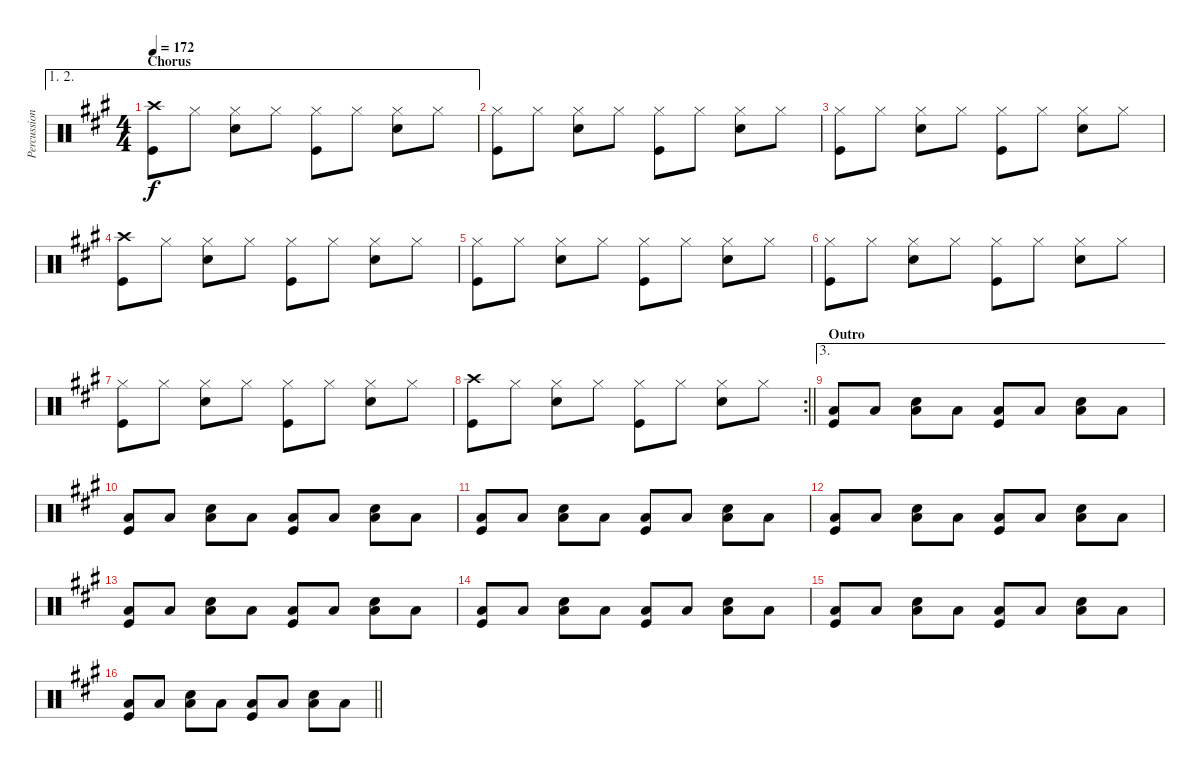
\track ("Percussion" "Percussion") {instrument percussion}
\staff {score}
\articulation defaults
\ae (1 2)
\ts (4 4)
\section ("" "Chorus")
\tempo 172
\clef neutral
\ks a
("Crash high (hit)" "Kick (hit)").8{dy f} "Hi-Hat (closed)".8 ("Hi-Hat (closed)" "Snare (hit) 2").8 "Hi-Hat (closed)".8 ("Hi-Hat (closed)" "Kick (hit)").8 "Hi-Hat (closed)".8 ("Hi-Hat (closed)" "Snare (hit) 2").8 "Hi-Hat (closed)".8 |
("Hi-Hat (closed)" "Kick (hit)").8 "Hi-Hat (closed)".8 ("Hi-Hat (closed)" "Snare (hit) 2").8 "Hi-Hat (closed)".8 ("Hi-Hat (closed)" "Kick (hit)").8 "Hi-Hat (closed)".8 ("Hi-Hat (closed)" "Snare (hit) 2").8 "Hi-Hat (closed)".8 |
("Hi-Hat (closed)" "Kick (hit)").8 "Hi-Hat (closed)".8 ("Hi-Hat (closed)" "Snare (hit) 2").8 "Hi-Hat (closed)".8 ("Hi-Hat (closed)" "Kick (hit)").8 "Hi-Hat (closed)".8 ("Hi-Hat (closed)" "Snare (hit) 2").8 "Hi-Hat (closed)".8 |
("Crash high (hit)" "Kick (hit)").8 "Hi-Hat (closed)".8 ("Hi-Hat (closed)" "Snare (hit) 2").8 "Hi-Hat (closed)".8 ("Hi-Hat (closed)" "Kick (hit)").8 "Hi-Hat (closed)".8 ("Hi-Hat (closed)" "Snare (hit) 2").8 "Hi-Hat (closed)".8 |
("Hi-Hat (closed)" "Kick (hit)").8 "Hi-Hat (closed)".8 ("Hi-Hat (closed)" "Snare (hit) 2").8 "Hi-Hat (closed)".8 ("Hi-Hat (closed)" "Kick (hit)").8 "Hi-Hat (closed)".8 ("Hi-Hat (closed)" "Snare (hit) 2").8 "Hi-Hat (closed)".8 |
("Hi-Hat (closed)" "Kick (hit)").8 "Hi-Hat (closed)".8 ("Hi-Hat (closed)" "Snare (hit) 2").8 "Hi-Hat (closed)".8 ("Hi-Hat (closed)" "Kick (hit)").8 "Hi-Hat (closed)".8 ("Hi-Hat (closed)" "Snare (hit) 2").8 "Hi-Hat (closed)".8 |
("Hi-Hat (closed)" "Kick (hit)").8 "Hi-Hat (closed)".8 ("Hi-Hat (closed)" "Snare (hit) 2").8 "Hi-Hat (closed)".8 ("Hi-Hat (closed)" "Kick (hit)").8 "Hi-Hat (closed)".8 ("Hi-Hat (closed)" "Snare (hit) 2").8 "Hi-Hat (closed)".8 |
\rc 2
\barLineRight lightlight
("Crash high (hit)" "Kick (hit)").8 "Hi-Hat (closed)".8 ("Hi-Hat (closed)" "Snare (hit) 2").8 "Hi-Hat (closed)".8 ("Hi-Hat (closed)" "Kick (hit)").8 "Hi-Hat (closed)".8 ("Hi-Hat (closed)" "Snare (hit) 2").8 "Hi-Hat (closed)".8 |
\ae 3
\section ("" "Outro")
("Low Floor Tom (hit)" "Kick (hit)").8 "Low Floor Tom (hit)".8 ("Low Floor Tom (hit)" "Snare (hit) 2").8 "Low Floor Tom (hit)".8 ("Low Floor Tom (hit)" "Kick (hit)").8 "Low Floor Tom (hit)".8 ("Low Floor Tom (hit)" "Snare (hit) 2").8 "Low Floor Tom (hit)".8 |
("Low Floor Tom (hit)" "Kick (hit)").8 "Low Floor Tom (hit)".8 ("Low Floor Tom (hit)" "Snare (hit) 2").8 "Low Floor Tom (hit)".8 ("Low Floor Tom (hit)" "Kick (hit)").8 "Low Floor Tom (hit)".8 ("Low Floor Tom (hit)" "Snare (hit) 2").8 "Low Floor Tom (hit)".8 |
("Low Floor Tom (hit)" "Kick (hit)").8 "Low Floor Tom (hit)".8 ("Low Floor Tom (hit)" "Snare (hit) 2").8 "Low Floor Tom (hit)".8 ("Low Floor Tom (hit)" "Kick (hit)").8 "Low Floor Tom (hit)".8 ("Low Floor Tom (hit)" "Snare (hit) 2").8 "Low Floor Tom (hit)".8 |
("Low Floor Tom (hit)" "Kick (hit)").8 "Low Floor Tom (hit)".8 ("Low Floor Tom (hit)" "Snare (hit) 2").8 "Low Floor Tom (hit)".8 ("Low Floor Tom (hit)" "Kick (hit)").8 "Low Floor Tom (hit)".8 ("Low Floor Tom (hit)" "Snare (hit) 2").8 "Low Floor Tom (hit)".8 |
("Low Floor Tom (hit)" "Kick (hit)").8 "Low Floor Tom (hit)".8 ("Low Floor Tom (hit)" "Snare (hit) 2").8 "Low Floor Tom (hit)".8 ("Low Floor Tom (hit)" "Kick (hit)").8 "Low Floor Tom (hit)".8 ("Low Floor Tom (hit)" "Snare (hit) 2").8 "Low Floor Tom (hit)".8 |
("Low Floor Tom (hit)" "Kick (hit)").8 "Low Floor Tom (hit)".8 ("Low Floor Tom (hit)" "Snare (hit) 2").8 "Low Floor Tom (hit)".8 ("Low Floor Tom (hit)" "Kick (hit)").8 "Low Floor Tom (hit)".8 ("Low Floor Tom (hit)" "Snare (hit) 2").8 "Low Floor Tom (hit)".8 |
("Low Floor Tom (hit)" "Kick (hit)").8 "Low Floor Tom (hit)".8 ("Low Floor Tom (hit)" "Snare (hit) 2").8 "Low Floor Tom (hit)".8 ("Low Floor Tom (hit)" "Kick (hit)").8 "Low Floor Tom (hit)".8 ("Low Floor Tom (hit)" "Snare (hit) 2").8 "Low Floor Tom (hit)".8 |
\barLineRight lightlight
("Low Floor Tom (hit)" "Kick (hit)").8 "Low Floor Tom (hit)".8 ("Low Floor Tom (hit)" "Snare (hit) 2").8 "Low Floor Tom (hit)".8 ("Low Floor Tom (hit)" "Kick (hit)").8 "Low Floor Tom (hit)".8 ("Low Floor Tom (hit)" "Snare (hit) 2").8 "Low Floor Tom (hit)".8
